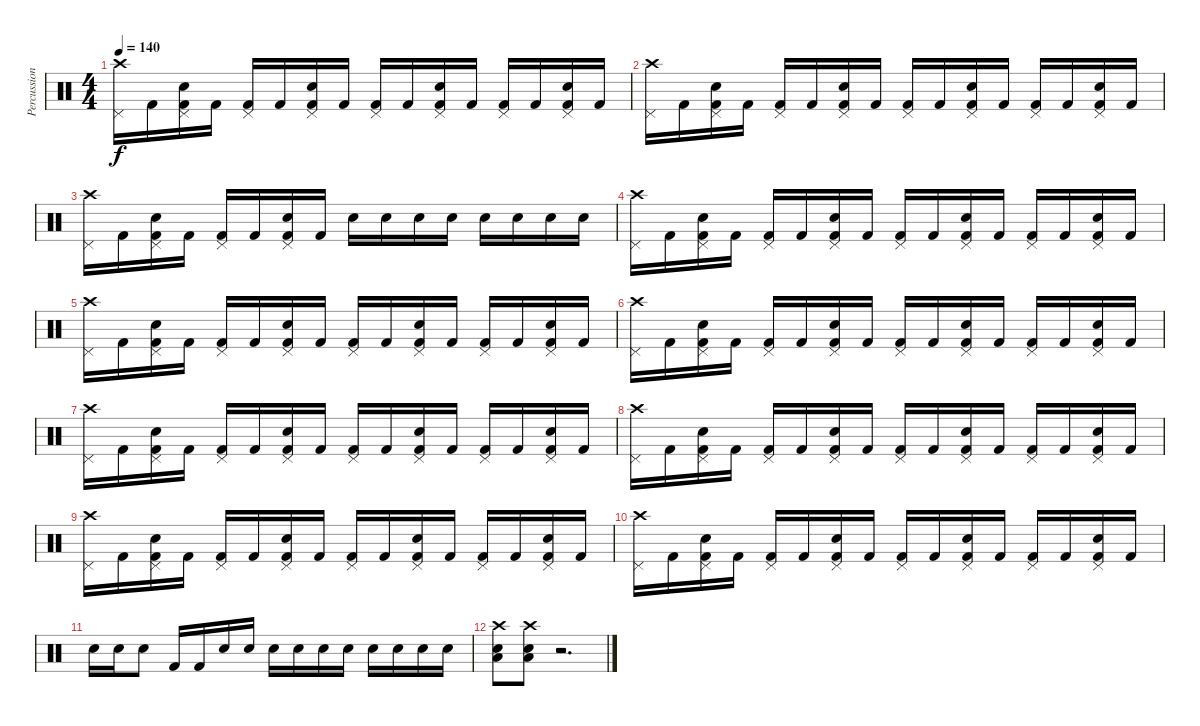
\track ("Percussions" "Percussion") {instrument percussion}
\staff {score}
\articulation defaults
\ts (4 4)
\tempo 140
\clef neutral
\ks c
("Pedal Hi-Hat (hit)" "Crash high (hit)").16{dy f} "Kick (hit) 2".16 ("Pedal Hi-Hat (hit)" "Electric Snare (hit)" "Kick (hit) 2").16 "Kick (hit) 2".16 ("Pedal Hi-Hat (hit)" "Kick (hit) 2").16 "Kick (hit) 2".16 ("Pedal Hi-Hat (hit)" "Electric Snare (hit)" "Kick (hit) 2").16 "Kick (hit) 2".16 ("Pedal Hi-Hat (hit)" "Kick (hit) 2").16 "Kick (hit) 2".16 ("Pedal Hi-Hat (hit)" "Electric Snare (hit)" "Kick (hit) 2").16 "Kick (hit) 2".16 ("Pedal Hi-Hat (hit)" "Kick (hit) 2").16 "Kick (hit) 2".16 ("Pedal Hi-Hat (hit)" "Electric Snare (hit)" "Kick (hit) 2").16 "Kick (hit) 2".16 |
("Pedal Hi-Hat (hit)" "Crash high (hit)").16 "Kick (hit) 2".16 ("Pedal Hi-Hat (hit)" "Electric Snare (hit)" "Kick (hit) 2").16 "Kick (hit) 2".16 ("Pedal Hi-Hat (hit)" "Kick (hit) 2").16 "Kick (hit) 2".16 ("Pedal Hi-Hat (hit)" "Electric Snare (hit)" "Kick (hit) 2").16 "Kick (hit) 2".16 ("Pedal Hi-Hat (hit)" "Kick (hit) 2").16 "Kick (hit) 2".16 ("Pedal Hi-Hat (hit)" "Electric Snare (hit)" "Kick (hit) 2").16 "Kick (hit) 2".16 ("Pedal Hi-Hat (hit)" "Kick (hit) 2").16 "Kick (hit) 2".16 ("Pedal Hi-Hat (hit)" "Electric Snare (hit)" "Kick (hit) 2").16 "Kick (hit) 2".16 |
("Pedal Hi-Hat (hit)" "Crash high (hit)").16 "Kick (hit) 2".16 ("Pedal Hi-Hat (hit)" "Electric Snare (hit)" "Kick (hit) 2").16 "Kick (hit) 2".16 ("Pedal Hi-Hat (hit)" "Kick (hit) 2").16 "Kick (hit) 2".16 ("Pedal Hi-Hat (hit)" "Electric Snare (hit)" "Kick (hit) 2").16 "Kick (hit) 2".16 "Electric Snare (hit)".16 "Electric Snare (hit)".16 "Electric Snare (hit)".16 "Electric Snare (hit)".16 "Electric Snare (hit)".16 "Snare (hit)".16 "Electric Snare (hit)".16 "Electric Snare (hit)".16 |
("Pedal Hi-Hat (hit)" "Crash high (hit)").16 "Kick (hit) 2".16 ("Pedal Hi-Hat (hit)" "Electric Snare (hit)" "Kick (hit) 2").16 "Kick (hit) 2".16 ("Pedal Hi-Hat (hit)" "Kick (hit) 2").16 "Kick (hit) 2".16 ("Pedal Hi-Hat (hit)" "Electric Snare (hit)" "Kick (hit) 2").16 "Kick (hit) 2".16 ("Pedal Hi-Hat (hit)" "Kick (hit) 2").16 "Kick (hit) 2".16 ("Pedal Hi-Hat (hit)" "Electric Snare (hit)" "Kick (hit) 2").16 "Kick (hit) 2".16 ("Pedal Hi-Hat (hit)" "Kick (hit) 2").16 "Kick (hit) 2".16 ("Pedal Hi-Hat (hit)" "Electric Snare (hit)" "Kick (hit) 2").16 "Kick (hit) 2".16 |
("Pedal Hi-Hat (hit)" "Crash high (hit)").16 "Kick (hit) 2".16 ("Pedal Hi-Hat (hit)" "Electric Snare (hit)" "Kick (hit) 2").16 "Kick (hit) 2".16 ("Pedal Hi-Hat (hit)" "Kick (hit) 2").16 "Kick (hit) 2".16 ("Pedal Hi-Hat (hit)" "Electric Snare (hit)" "Kick (hit) 2").16 "Kick (hit) 2".16 ("Pedal Hi-Hat (hit)" "Kick (hit) 2").16 "Kick (hit) 2".16 ("Pedal Hi-Hat (hit)" "Electric Snare (hit)" "Kick (hit) 2").16 "Kick (hit) 2".16 ("Pedal Hi-Hat (hit)" "Kick (hit) 2").16 "Kick (hit) 2".16 ("Pedal Hi-Hat (hit)" "Electric Snare (hit)" "Kick (hit) 2").16 "Kick (hit) 2".16 |
("Pedal Hi-Hat (hit)" "Crash high (hit)").16 "Kick (hit) 2".16 ("Pedal Hi-Hat (hit)" "Electric Snare (hit)" "Kick (hit) 2").16 "Kick (hit) 2".16 ("Pedal Hi-Hat (hit)" "Kick (hit) 2").16 "Kick (hit) 2".16 ("Pedal Hi-Hat (hit)" "Electric Snare (hit)" "Kick (hit) 2").16 "Kick (hit) 2".16 ("Pedal Hi-Hat (hit)" "Kick (hit) 2").16 "Kick (hit) 2".16 ("Pedal Hi-Hat (hit)" "Electric Snare (hit)" "Kick (hit) 2").16 "Kick (hit) 2".16 ("Pedal Hi-Hat (hit)" "Kick (hit) 2").16 "Kick (hit) 2".16 ("Pedal Hi-Hat (hit)" "Electric Snare (hit)" "Kick (hit) 2").16 "Kick (hit) 2".16 |
("Pedal Hi-Hat (hit)" "Crash high (hit)").16 "Kick (hit) 2".16 ("Pedal Hi-Hat (hit)" "Electric Snare (hit)" "Kick (hit) 2").16 "Kick (hit) 2".16 ("Pedal Hi-Hat (hit)" "Kick (hit) 2").16 "Kick (hit) 2".16 ("Pedal Hi-Hat (hit)" "Electric Snare (hit)" "Kick (hit) 2").16 "Kick (hit) 2".16 ("Pedal Hi-Hat (hit)" "Kick (hit) 2").16 "Kick (hit) 2".16 ("Pedal Hi-Hat (hit)" "Electric Snare (hit)" "Kick (hit) 2").16 "Kick (hit) 2".16 ("Pedal Hi-Hat (hit)" "Kick (hit) 2").16 "Kick (hit) 2".16 ("Pedal Hi-Hat (hit)" "Electric Snare (hit)" "Kick (hit) 2").16 "Kick (hit) 2".16 |
("Pedal Hi-Hat (hit)" "Crash high (hit)").16 "Kick (hit) 2".16 ("Pedal Hi-Hat (hit)" "Electric Snare (hit)" "Kick (hit) 2").16 "Kick (hit) 2".16 ("Pedal Hi-Hat (hit)" "Kick (hit) 2").16 "Kick (hit) 2".16 ("Pedal Hi-Hat (hit)" "Electric Snare (hit)" "Kick (hit) 2").16 "Kick (hit) 2".16 ("Pedal Hi-Hat (hit)" "Kick (hit) 2").16 "Kick (hit) 2".16 ("Pedal Hi-Hat (hit)" "Electric Snare (hit)" "Kick (hit) 2").16 "Kick (hit) 2".16 ("Pedal Hi-Hat (hit)" "Kick (hit) 2").16 "Kick (hit) 2".16 ("Pedal Hi-Hat (hit)" "Electric Snare (hit)" "Kick (hit) 2").16 "Kick (hit) 2".16 |
("Pedal Hi-Hat (hit)" "Crash high (hit)").16 "Kick (hit) 2".16 ("Pedal Hi-Hat (hit)" "Electric Snare (hit)" "Kick (hit) 2").16 "Kick (hit) 2".16 ("Pedal Hi-Hat (hit)" "Kick (hit) 2").16 "Kick (hit) 2".16 ("Pedal Hi-Hat (hit)" "Electric Snare (hit)" "Kick (hit) 2").16 "Kick (hit) 2".16 ("Pedal Hi-Hat (hit)" "Kick (hit) 2").16 "Kick (hit) 2".16 ("Pedal Hi-Hat (hit)" "Electric Snare (hit)" "Kick (hit) 2").16 "Kick (hit) 2".16 ("Pedal Hi-Hat (hit)" "Kick (hit) 2").16 "Kick (hit) 2".16 ("Pedal Hi-Hat (hit)" "Electric Snare (hit)" "Kick (hit) 2").16 "Kick (hit) 2".16 |
("Pedal Hi-Hat (hit)" "Crash high (hit)").16 "Kick (hit) 2".16 ("Pedal Hi-Hat (hit)" "Electric Snare (hit)" "Kick (hit) 2").16 "Kick (hit) 2".16 ("Pedal Hi-Hat (hit)" "Kick (hit) 2").16 "Kick (hit) 2".16 ("Pedal Hi-Hat (hit)" "Electric Snare (hit)" "Kick (hit) 2").16 "Kick (hit) 2".16 ("Pedal Hi-Hat (hit)" "Kick (hit) 2").16 "Kick (hit) 2".16 ("Pedal Hi-Hat (hit)" "Electric Snare (hit)" "Kick (hit) 2").16 "Kick (hit) 2".16 ("Pedal Hi-Hat (hit)" "Kick (hit) 2").16 "Kick (hit) 2".16 ("Pedal Hi-Hat (hit)" "Electric Snare (hit)" "Kick (hit) 2").16 "Kick (hit) 2".16 |
"Electric Snare (hit)".16 "Electric Snare (hit)".16 "Electric Snare (hit)".8 "Kick (hit) 2".16 "Kick (hit) 2".16 "Electric Snare (hit)".16 "Electric Snare (hit)".16 "Electric Snare (hit)".16 "Electric Snare (hit)".16 "Electric Snare (hit)".16 "Electric Snare (hit)".16 "Electric Snare (hit)".16 "Electric Snare (hit)".16 "Electric Snare (hit)".16 "Electric Snare (hit)".16 |
("Low Floor Tom (hit)" "Crash high (hit)" "Electric Snare (hit)").8 ("Low Floor Tom (hit)" "Crash high (hit)" "Electric Snare (hit)").8 r.2{d}
